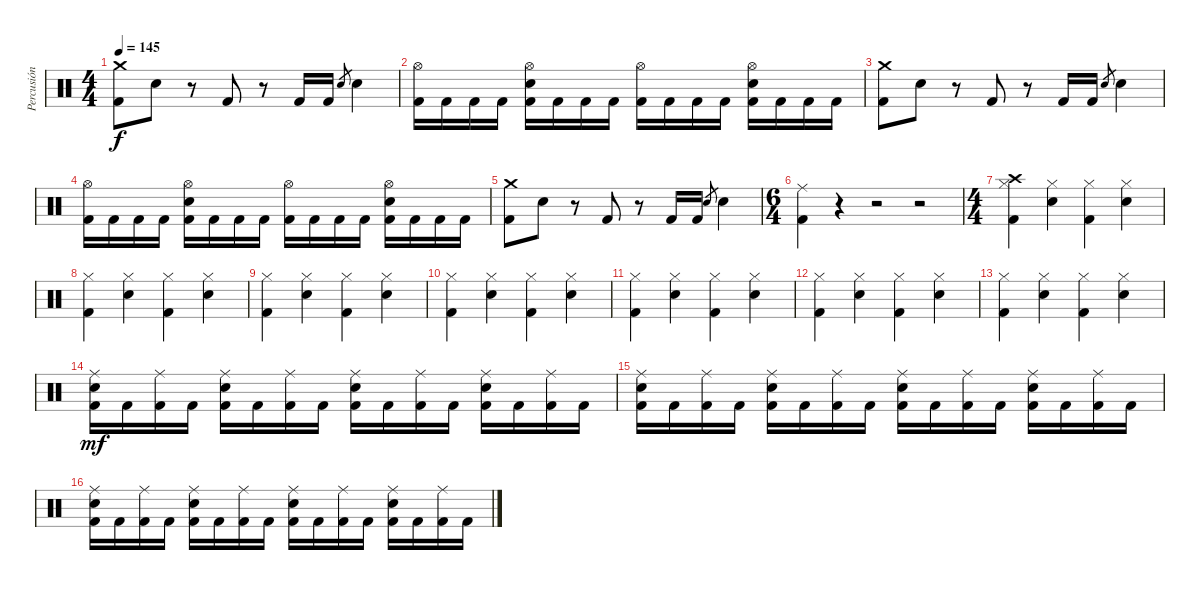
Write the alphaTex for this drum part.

\track ("Percusión" "Percusión") {instrument percussion}
\staff {score}
\articulation defaults
\ts (4 4)
\tempo 145
\clef neutral
\ks c
("Crash medium (hit)" "Kick (hit) 2").8{dy f} "Snare (hit) 2".8 r.8 "Kick (hit) 2".8 r.8 "Kick (hit) 2".16 "Kick (hit) 2".16 "Snare (hit) 2".8{gr} "Snare (hit) 2".4 |
("Hi-Hat (open)" "Kick (hit) 2").16 "Kick (hit) 2".16 "Kick (hit) 2".16 "Kick (hit) 2".16 ("Hi-Hat (open)" "Snare (hit) 2" "Kick (hit) 2").16 "Kick (hit) 2".16 "Kick (hit) 2".16 "Kick (hit) 2".16 ("Hi-Hat (open)" "Kick (hit) 2").16 "Kick (hit) 2".16 "Kick (hit) 2".16 "Kick (hit) 2".16 ("Hi-Hat (open)" "Snare (hit) 2" "Kick (hit) 2").16 "Kick (hit) 2".16 "Kick (hit) 2".16 "Kick (hit) 2".16 |
("Crash medium (hit)" "Kick (hit) 2").8 "Snare (hit) 2".8 r.8 "Kick (hit) 2".8 r.8 "Kick (hit) 2".16 "Kick (hit) 2".16 "Snare (hit) 2".8{gr} "Snare (hit) 2".4 |
("Hi-Hat (open)" "Kick (hit) 2").16 "Kick (hit) 2".16 "Kick (hit) 2".16 "Kick (hit) 2".16 ("Hi-Hat (open)" "Snare (hit) 2" "Kick (hit) 2").16 "Kick (hit) 2".16 "Kick (hit) 2".16 "Kick (hit) 2".16 ("Hi-Hat (open)" "Kick (hit) 2").16 "Kick (hit) 2".16 "Kick (hit) 2".16 "Kick (hit) 2".16 ("Hi-Hat (open)" "Snare (hit) 2" "Kick (hit) 2").16 "Kick (hit) 2".16 "Kick (hit) 2".16 "Kick (hit) 2".16 |
("Crash medium (hit)" "Kick (hit) 2").8 "Snare (hit) 2".8 r.8 "Kick (hit) 2".8 r.8 "Kick (hit) 2".16 "Kick (hit) 2".16 "Snare (hit) 2".8{gr} "Snare (hit) 2".4 |
\ts (6 4)
("Ride (middle)" "Kick (hit) 2").4 r.4 r.2 r.2 |
\ts (4 4)
("Crash high (hit)" "Hi-Hat (closed)" "Kick (hit) 2").4 ("Hi-Hat (closed)" "Snare (hit) 2").4 ("Hi-Hat (closed)" "Kick (hit) 2").4 ("Hi-Hat (closed)" "Snare (hit) 2").4 |
("Hi-Hat (closed)" "Kick (hit) 2").4 ("Hi-Hat (closed)" "Snare (hit) 2").4 ("Hi-Hat (closed)" "Kick (hit) 2").4 ("Hi-Hat (closed)" "Snare (hit) 2").4 |
("Hi-Hat (closed)" "Kick (hit) 2").4 ("Hi-Hat (closed)" "Snare (hit) 2").4 ("Hi-Hat (closed)" "Kick (hit) 2").4 ("Hi-Hat (closed)" "Snare (hit) 2").4 |
("Hi-Hat (closed)" "Kick (hit) 2").4 ("Hi-Hat (closed)" "Snare (hit) 2").4 ("Hi-Hat (closed)" "Kick (hit) 2").4 ("Hi-Hat (closed)" "Snare (hit) 2").4 |
("Hi-Hat (closed)" "Kick (hit) 2").4 ("Hi-Hat (closed)" "Snare (hit) 2").4 ("Hi-Hat (closed)" "Kick (hit) 2").4 ("Hi-Hat (closed)" "Snare (hit) 2").4 |
("Hi-Hat (closed)" "Kick (hit) 2").4 ("Hi-Hat (closed)" "Snare (hit) 2").4 ("Hi-Hat (closed)" "Kick (hit) 2").4 ("Hi-Hat (closed)" "Snare (hit) 2").4 |
("Hi-Hat (closed)" "Kick (hit) 2").4 ("Hi-Hat (closed)" "Snare (hit) 2").4 ("Hi-Hat (closed)" "Kick (hit) 2").4 ("Hi-Hat (closed)" "Snare (hit) 2").4 |
("Ride (middle)" "Snare (hit) 2" "Kick (hit) 2").16{dy mf} "Kick (hit) 2".16 ("Ride (middle)" "Kick (hit) 2").16 "Kick (hit) 2".16 ("Ride (middle)" "Snare (hit) 2" "Kick (hit) 2").16 "Kick (hit) 2".16 ("Ride (middle)" "Kick (hit) 2").16 "Kick (hit) 2".16 ("Ride (middle)" "Snare (hit) 2" "Kick (hit) 2").16 "Kick (hit) 2".16 ("Ride (middle)" "Kick (hit) 2").16 "Kick (hit) 2".16 ("Ride (middle)" "Snare (hit) 2" "Kick (hit) 2").16 "Kick (hit) 2".16 ("Ride (middle)" "Kick (hit) 2").16 "Kick (hit) 2".16 |
("Ride (middle)" "Snare (hit) 2" "Kick (hit) 2").16 "Kick (hit) 2".16 ("Ride (middle)" "Kick (hit) 2").16 "Kick (hit) 2".16 ("Ride (middle)" "Snare (hit) 2" "Kick (hit) 2").16 "Kick (hit) 2".16 ("Ride (middle)" "Kick (hit) 2").16 "Kick (hit) 2".16 ("Ride (middle)" "Snare (hit) 2" "Kick (hit) 2").16 "Kick (hit) 2".16 ("Ride (middle)" "Kick (hit) 2").16 "Kick (hit) 2".16 ("Ride (middle)" "Snare (hit) 2" "Kick (hit) 2").16 "Kick (hit) 2".16 ("Ride (middle)" "Kick (hit) 2").16 "Kick (hit) 2".16 |
("Ride (middle)" "Snare (hit) 2" "Kick (hit) 2").16 "Kick (hit) 2".16 ("Ride (middle)" "Kick (hit) 2").16 "Kick (hit) 2".16 ("Ride (middle)" "Snare (hit) 2" "Kick (hit) 2").16 "Kick (hit) 2".16 ("Ride (middle)" "Kick (hit) 2").16 "Kick (hit) 2".16 ("Ride (middle)" "Snare (hit) 2" "Kick (hit) 2").16 "Kick (hit) 2".16 ("Ride (middle)" "Kick (hit) 2").16 "Kick (hit) 2".16 ("Ride (middle)" "Snare (hit) 2" "Kick (hit) 2").16 "Kick (hit) 2".16 ("Ride (middle)" "Kick (hit) 2").16 "Kick (hit) 2".16
